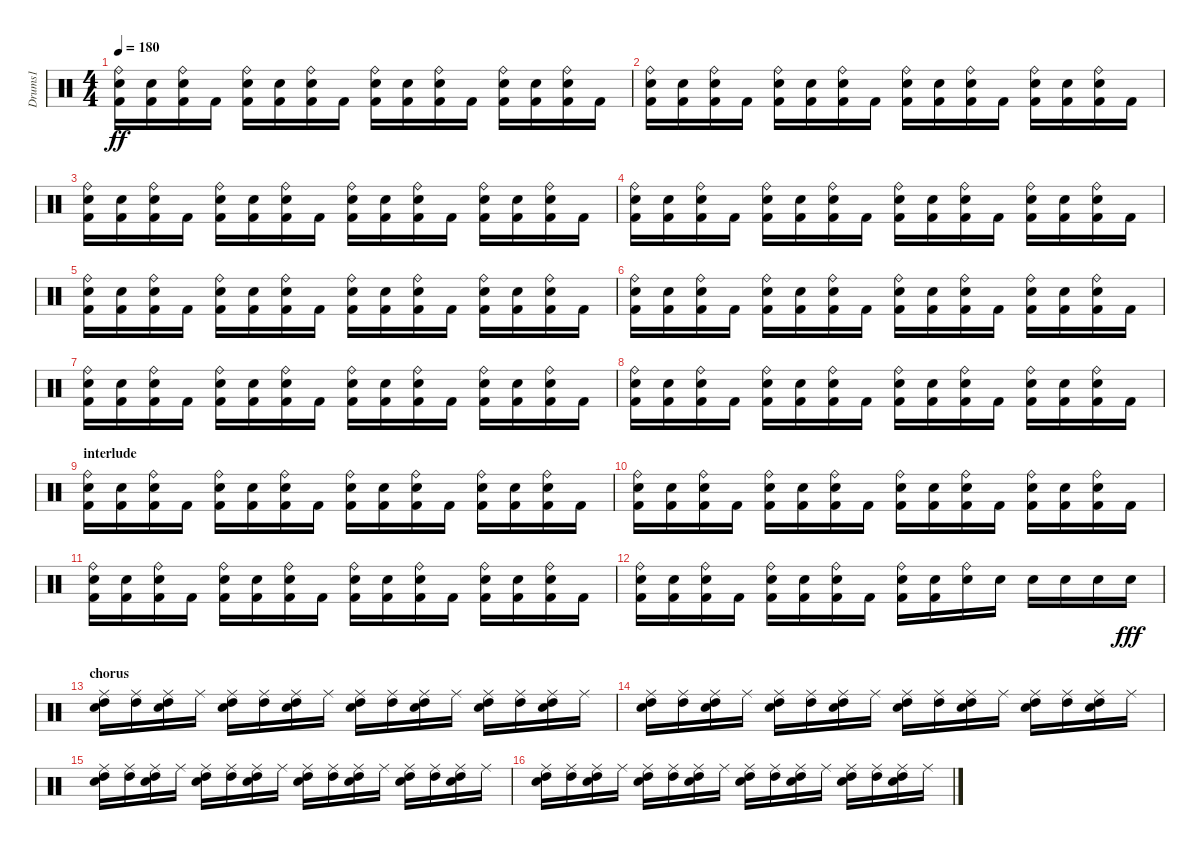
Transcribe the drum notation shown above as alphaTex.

\track ("Drums1" "Drums1") {instrument percussion}
\staff {score}
\articulation defaults
\ts (4 4)
\tempo 180
\clef neutral
\ks c
("Ride (bell)" "Electric Snare (hit)" "Kick (hit) 2").16{dy ff} ("Electric Snare (hit)" "Kick (hit) 2").16 ("Ride (bell)" "Electric Snare (hit)" "Kick (hit) 2").16 "Kick (hit) 2".16 ("Ride (bell)" "Electric Snare (hit)" "Kick (hit) 2").16 ("Electric Snare (hit)" "Kick (hit) 2").16 ("Ride (bell)" "Electric Snare (hit)" "Kick (hit) 2").16 "Kick (hit) 2".16 ("Ride (bell)" "Electric Snare (hit)" "Kick (hit) 2").16 ("Electric Snare (hit)" "Kick (hit) 2").16 ("Ride (bell)" "Electric Snare (hit)" "Kick (hit) 2").16 "Kick (hit) 2".16 ("Ride (bell)" "Electric Snare (hit)" "Kick (hit) 2").16 ("Electric Snare (hit)" "Kick (hit) 2").16 ("Ride (bell)" "Electric Snare (hit)" "Kick (hit) 2").16 "Kick (hit) 2".16 |
("Ride (bell)" "Electric Snare (hit)" "Kick (hit) 2").16 ("Electric Snare (hit)" "Kick (hit) 2").16 ("Ride (bell)" "Electric Snare (hit)" "Kick (hit) 2").16 "Kick (hit) 2".16 ("Ride (bell)" "Electric Snare (hit)" "Kick (hit) 2").16 ("Electric Snare (hit)" "Kick (hit) 2").16 ("Ride (bell)" "Electric Snare (hit)" "Kick (hit) 2").16 "Kick (hit) 2".16 ("Ride (bell)" "Electric Snare (hit)" "Kick (hit) 2").16 ("Electric Snare (hit)" "Kick (hit) 2").16 ("Ride (bell)" "Electric Snare (hit)" "Kick (hit) 2").16 "Kick (hit) 2".16 ("Ride (bell)" "Electric Snare (hit)" "Kick (hit) 2").16 ("Electric Snare (hit)" "Kick (hit) 2").16 ("Ride (bell)" "Electric Snare (hit)" "Kick (hit) 2").16 "Kick (hit) 2".16 |
("Ride (bell)" "Electric Snare (hit)" "Kick (hit) 2").16 ("Electric Snare (hit)" "Kick (hit) 2").16 ("Ride (bell)" "Electric Snare (hit)" "Kick (hit) 2").16 "Kick (hit) 2".16 ("Ride (bell)" "Electric Snare (hit)" "Kick (hit) 2").16 ("Electric Snare (hit)" "Kick (hit) 2").16 ("Ride (bell)" "Electric Snare (hit)" "Kick (hit) 2").16 "Kick (hit) 2".16 ("Ride (bell)" "Electric Snare (hit)" "Kick (hit) 2").16 ("Electric Snare (hit)" "Kick (hit) 2").16 ("Ride (bell)" "Electric Snare (hit)" "Kick (hit) 2").16 "Kick (hit) 2".16 ("Ride (bell)" "Electric Snare (hit)" "Kick (hit) 2").16 ("Electric Snare (hit)" "Kick (hit) 2").16 ("Ride (bell)" "Electric Snare (hit)" "Kick (hit) 2").16 "Kick (hit) 2".16 |
("Ride (bell)" "Electric Snare (hit)" "Kick (hit) 2").16 ("Electric Snare (hit)" "Kick (hit) 2").16 ("Ride (bell)" "Electric Snare (hit)" "Kick (hit) 2").16 "Kick (hit) 2".16 ("Ride (bell)" "Electric Snare (hit)" "Kick (hit) 2").16 ("Electric Snare (hit)" "Kick (hit) 2").16 ("Ride (bell)" "Electric Snare (hit)" "Kick (hit) 2").16 "Kick (hit) 2".16 ("Ride (bell)" "Electric Snare (hit)" "Kick (hit) 2").16 ("Electric Snare (hit)" "Kick (hit) 2").16 ("Ride (bell)" "Electric Snare (hit)" "Kick (hit) 2").16 "Kick (hit) 2".16 ("Ride (bell)" "Electric Snare (hit)" "Kick (hit) 2").16 ("Electric Snare (hit)" "Kick (hit) 2").16 ("Ride (bell)" "Electric Snare (hit)" "Kick (hit) 2").16 "Kick (hit) 2".16 |
("Ride (bell)" "Electric Snare (hit)" "Kick (hit) 2").16 ("Electric Snare (hit)" "Kick (hit) 2").16 ("Ride (bell)" "Electric Snare (hit)" "Kick (hit) 2").16 "Kick (hit) 2".16 ("Ride (bell)" "Electric Snare (hit)" "Kick (hit) 2").16 ("Electric Snare (hit)" "Kick (hit) 2").16 ("Ride (bell)" "Electric Snare (hit)" "Kick (hit) 2").16 "Kick (hit) 2".16 ("Ride (bell)" "Electric Snare (hit)" "Kick (hit) 2").16 ("Electric Snare (hit)" "Kick (hit) 2").16 ("Ride (bell)" "Electric Snare (hit)" "Kick (hit) 2").16 "Kick (hit) 2".16 ("Ride (bell)" "Electric Snare (hit)" "Kick (hit) 2").16 ("Electric Snare (hit)" "Kick (hit) 2").16 ("Ride (bell)" "Electric Snare (hit)" "Kick (hit) 2").16 "Kick (hit) 2".16 |
("Ride (bell)" "Electric Snare (hit)" "Kick (hit) 2").16 ("Electric Snare (hit)" "Kick (hit) 2").16 ("Ride (bell)" "Electric Snare (hit)" "Kick (hit) 2").16 "Kick (hit) 2".16 ("Ride (bell)" "Electric Snare (hit)" "Kick (hit) 2").16 ("Electric Snare (hit)" "Kick (hit) 2").16 ("Ride (bell)" "Electric Snare (hit)" "Kick (hit) 2").16 "Kick (hit) 2".16 ("Ride (bell)" "Electric Snare (hit)" "Kick (hit) 2").16 ("Electric Snare (hit)" "Kick (hit) 2").16 ("Ride (bell)" "Electric Snare (hit)" "Kick (hit) 2").16 "Kick (hit) 2".16 ("Ride (bell)" "Electric Snare (hit)" "Kick (hit) 2").16 ("Electric Snare (hit)" "Kick (hit) 2").16 ("Ride (bell)" "Electric Snare (hit)" "Kick (hit) 2").16 "Kick (hit) 2".16 |
("Ride (bell)" "Electric Snare (hit)" "Kick (hit) 2").16 ("Electric Snare (hit)" "Kick (hit) 2").16 ("Ride (bell)" "Electric Snare (hit)" "Kick (hit) 2").16 "Kick (hit) 2".16 ("Ride (bell)" "Electric Snare (hit)" "Kick (hit) 2").16 ("Electric Snare (hit)" "Kick (hit) 2").16 ("Ride (bell)" "Electric Snare (hit)" "Kick (hit) 2").16 "Kick (hit) 2".16 ("Ride (bell)" "Electric Snare (hit)" "Kick (hit) 2").16 ("Electric Snare (hit)" "Kick (hit) 2").16 ("Ride (bell)" "Electric Snare (hit)" "Kick (hit) 2").16 "Kick (hit) 2".16 ("Ride (bell)" "Electric Snare (hit)" "Kick (hit) 2").16 ("Electric Snare (hit)" "Kick (hit) 2").16 ("Ride (bell)" "Electric Snare (hit)" "Kick (hit) 2").16 "Kick (hit) 2".16 |
("Ride (bell)" "Electric Snare (hit)" "Kick (hit) 2").16 ("Electric Snare (hit)" "Kick (hit) 2").16 ("Ride (bell)" "Electric Snare (hit)" "Kick (hit) 2").16 "Kick (hit) 2".16 ("Ride (bell)" "Electric Snare (hit)" "Kick (hit) 2").16 ("Electric Snare (hit)" "Kick (hit) 2").16 ("Ride (bell)" "Electric Snare (hit)" "Kick (hit) 2").16 "Kick (hit) 2".16 ("Ride (bell)" "Electric Snare (hit)" "Kick (hit) 2").16 ("Electric Snare (hit)" "Kick (hit) 2").16 ("Ride (bell)" "Electric Snare (hit)" "Kick (hit) 2").16 "Kick (hit) 2".16 ("Ride (bell)" "Electric Snare (hit)" "Kick (hit) 2").16 ("Electric Snare (hit)" "Kick (hit) 2").16 ("Ride (bell)" "Electric Snare (hit)" "Kick (hit) 2").16 "Kick (hit) 2".16 |
\section ("" "interlude")
("Ride (bell)" "Electric Snare (hit)" "Kick (hit) 2").16 ("Electric Snare (hit)" "Kick (hit) 2").16 ("Ride (bell)" "Electric Snare (hit)" "Kick (hit) 2").16 "Kick (hit) 2".16 ("Ride (bell)" "Electric Snare (hit)" "Kick (hit) 2").16 ("Electric Snare (hit)" "Kick (hit) 2").16 ("Ride (bell)" "Electric Snare (hit)" "Kick (hit) 2").16 "Kick (hit) 2".16 ("Ride (bell)" "Electric Snare (hit)" "Kick (hit) 2").16 ("Electric Snare (hit)" "Kick (hit) 2").16 ("Ride (bell)" "Electric Snare (hit)" "Kick (hit) 2").16 "Kick (hit) 2".16 ("Ride (bell)" "Electric Snare (hit)" "Kick (hit) 2").16 ("Electric Snare (hit)" "Kick (hit) 2").16 ("Ride (bell)" "Electric Snare (hit)" "Kick (hit) 2").16 "Kick (hit) 2".16 |
("Ride (bell)" "Electric Snare (hit)" "Kick (hit) 2").16 ("Electric Snare (hit)" "Kick (hit) 2").16 ("Ride (bell)" "Electric Snare (hit)" "Kick (hit) 2").16 "Kick (hit) 2".16 ("Ride (bell)" "Electric Snare (hit)" "Kick (hit) 2").16 ("Electric Snare (hit)" "Kick (hit) 2").16 ("Ride (bell)" "Electric Snare (hit)" "Kick (hit) 2").16 "Kick (hit) 2".16 ("Ride (bell)" "Electric Snare (hit)" "Kick (hit) 2").16 ("Electric Snare (hit)" "Kick (hit) 2").16 ("Ride (bell)" "Electric Snare (hit)" "Kick (hit) 2").16 "Kick (hit) 2".16 ("Ride (bell)" "Electric Snare (hit)" "Kick (hit) 2").16 ("Electric Snare (hit)" "Kick (hit) 2").16 ("Ride (bell)" "Electric Snare (hit)" "Kick (hit) 2").16 "Kick (hit) 2".16 |
("Ride (bell)" "Electric Snare (hit)" "Kick (hit) 2").16 ("Electric Snare (hit)" "Kick (hit) 2").16 ("Ride (bell)" "Electric Snare (hit)" "Kick (hit) 2").16 "Kick (hit) 2".16 ("Ride (bell)" "Electric Snare (hit)" "Kick (hit) 2").16 ("Electric Snare (hit)" "Kick (hit) 2").16 ("Ride (bell)" "Electric Snare (hit)" "Kick (hit) 2").16 "Kick (hit) 2".16 ("Ride (bell)" "Electric Snare (hit)" "Kick (hit) 2").16 ("Electric Snare (hit)" "Kick (hit) 2").16 ("Ride (bell)" "Electric Snare (hit)" "Kick (hit) 2").16 "Kick (hit) 2".16 ("Ride (bell)" "Electric Snare (hit)" "Kick (hit) 2").16 ("Electric Snare (hit)" "Kick (hit) 2").16 ("Ride (bell)" "Electric Snare (hit)" "Kick (hit) 2").16 "Kick (hit) 2".16 |
("Ride (bell)" "Electric Snare (hit)" "Kick (hit) 2").16 ("Electric Snare (hit)" "Kick (hit) 2").16 ("Ride (bell)" "Electric Snare (hit)" "Kick (hit) 2").16 "Kick (hit) 2".16 ("Ride (bell)" "Electric Snare (hit)" "Kick (hit) 2").16 ("Electric Snare (hit)" "Kick (hit) 2").16 ("Ride (bell)" "Electric Snare (hit)" "Kick (hit) 2").16 "Kick (hit) 2".16 ("Ride (bell)" "Electric Snare (hit)" "Kick (hit) 2").16 ("Electric Snare (hit)" "Kick (hit) 2").16 ("Ride (bell)" "Electric Snare (hit)").16 "Electric Snare (hit)".16 "Electric Snare (hit)".16 "Electric Snare (hit)".16 "Electric Snare (hit)".16 "Electric Snare (hit)".16{dy fff} |
\section ("" "chorus")
("Electric Snare (hit)" "Ride (middle)" "High Tom (hit)").16 ("Ride (middle)" "High Tom (hit)").16 ("Electric Snare (hit)" "Ride (middle)" "High Tom (hit)").16 "Ride (middle)".16 ("Electric Snare (hit)" "Ride (middle)" "High Tom (hit)").16 ("Ride (middle)" "High Tom (hit)").16 ("Electric Snare (hit)" "Ride (middle)" "High Tom (hit)").16 "Ride (middle)".16 ("Electric Snare (hit)" "Ride (middle)" "High Tom (hit)").16 ("Ride (middle)" "High Tom (hit)").16 ("Electric Snare (hit)" "Ride (middle)" "High Tom (hit)").16 "Ride (middle)".16 ("Electric Snare (hit)" "Ride (middle)" "High Tom (hit)").16 ("Ride (middle)" "High Tom (hit)").16 ("Electric Snare (hit)" "Ride (middle)" "High Tom (hit)").16 "Ride (middle)".16 |
("Electric Snare (hit)" "Ride (middle)" "High Tom (hit)").16 ("Ride (middle)" "High Tom (hit)").16 ("Electric Snare (hit)" "Ride (middle)" "High Tom (hit)").16 "Ride (middle)".16 ("Electric Snare (hit)" "Ride (middle)" "High Tom (hit)").16 ("Ride (middle)" "High Tom (hit)").16 ("Electric Snare (hit)" "Ride (middle)" "High Tom (hit)").16 "Ride (middle)".16 ("Electric Snare (hit)" "Ride (middle)" "High Tom (hit)").16 ("Ride (middle)" "High Tom (hit)").16 ("Electric Snare (hit)" "Ride (middle)" "High Tom (hit)").16 "Ride (middle)".16 ("Electric Snare (hit)" "Ride (middle)" "High Tom (hit)").16 ("Ride (middle)" "High Tom (hit)").16 ("Electric Snare (hit)" "Ride (middle)" "High Tom (hit)").16 "Ride (middle)".16 |
("Electric Snare (hit)" "Ride (middle)" "High Tom (hit)").16 ("Ride (middle)" "High Tom (hit)").16 ("Electric Snare (hit)" "Ride (middle)" "High Tom (hit)").16 "Ride (middle)".16 ("Electric Snare (hit)" "Ride (middle)" "High Tom (hit)").16 ("Ride (middle)" "High Tom (hit)").16 ("Electric Snare (hit)" "Ride (middle)" "High Tom (hit)").16 "Ride (middle)".16 ("Electric Snare (hit)" "Ride (middle)" "High Tom (hit)").16 ("Ride (middle)" "High Tom (hit)").16 ("Electric Snare (hit)" "Ride (middle)" "High Tom (hit)").16 "Ride (middle)".16 ("Electric Snare (hit)" "Ride (middle)" "High Tom (hit)").16 ("Ride (middle)" "High Tom (hit)").16 ("Electric Snare (hit)" "Ride (middle)" "High Tom (hit)").16 "Ride (middle)".16 |
("Electric Snare (hit)" "Ride (middle)" "High Tom (hit)").16 ("Ride (middle)" "High Tom (hit)").16 ("Electric Snare (hit)" "Ride (middle)" "High Tom (hit)").16 "Ride (middle)".16 ("Electric Snare (hit)" "Ride (middle)" "High Tom (hit)").16 ("Ride (middle)" "High Tom (hit)").16 ("Electric Snare (hit)" "Ride (middle)" "High Tom (hit)").16 "Ride (middle)".16 ("Electric Snare (hit)" "Ride (middle)" "High Tom (hit)").16 ("Ride (middle)" "High Tom (hit)").16 ("Electric Snare (hit)" "Ride (middle)" "High Tom (hit)").16 "Ride (middle)".16 ("Electric Snare (hit)" "Ride (middle)" "High Tom (hit)").16 ("Ride (middle)" "High Tom (hit)").16 ("Electric Snare (hit)" "Ride (middle)" "High Tom (hit)").16 "Ride (middle)".16
